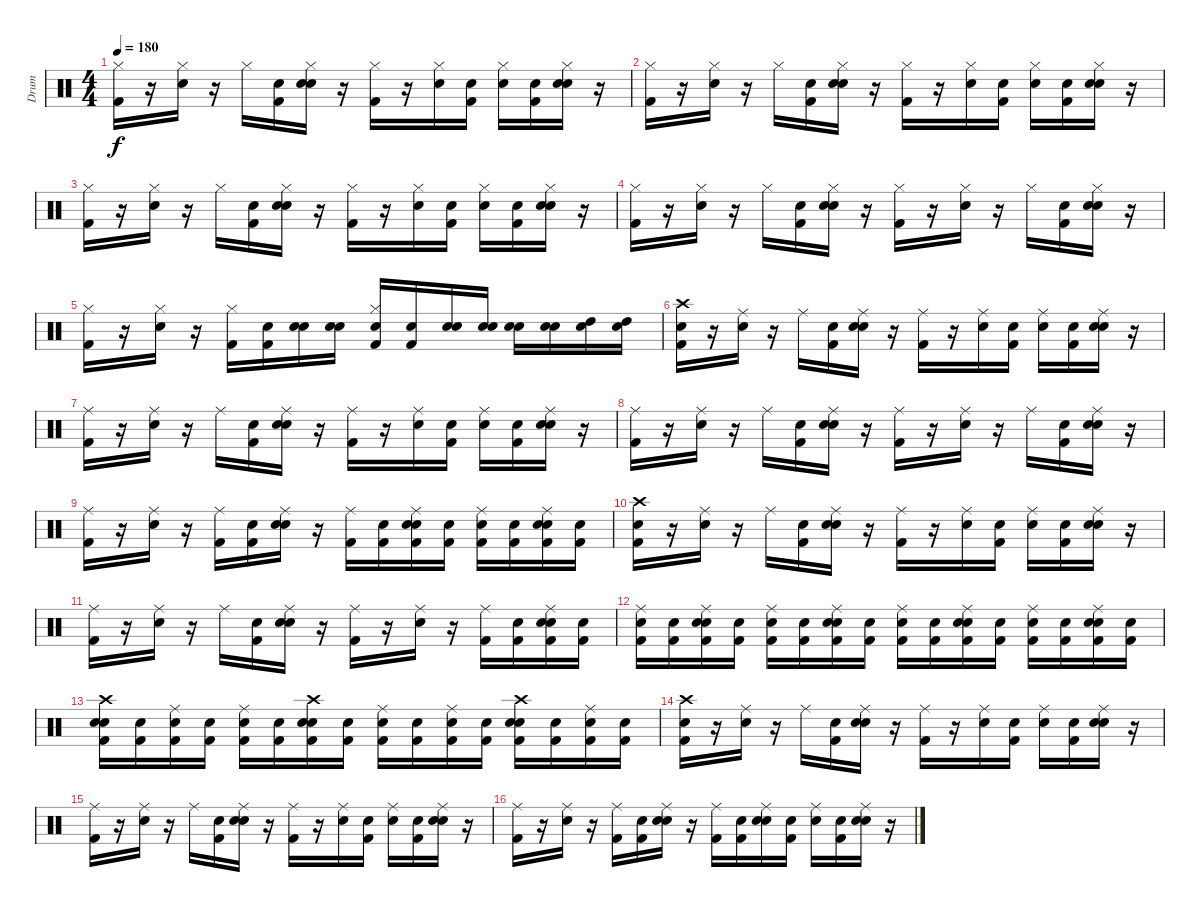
\track ("Drum" "Drum") {instrument percussion}
\staff {score}
\articulation defaults
\ts (4 4)
\tempo 180
\clef neutral
\ks c
("Kick (hit) 2" "Hi-Hat (closed)").16{dy f} r.16 ("Snare (hit) 2" "Hi-Hat (closed)").16 r.16 "Hi-Hat (closed)".16 ("Snare (hit)" "Kick (hit) 2").16 ("Snare (hit)" "Snare (hit) 2" "Hi-Hat (closed)").16 r.16 ("Kick (hit) 2" "Hi-Hat (closed)").16 r.16 ("Snare (hit) 2" "Hi-Hat (closed)").16 ("Snare (hit)" "Kick (hit) 2").16 ("Snare (hit)" "Hi-Hat (closed)").16 ("Snare (hit)" "Kick (hit) 2").16 ("Snare (hit)" "Snare (hit) 2" "Hi-Hat (closed)").16 r.16 |
("Kick (hit) 2" "Hi-Hat (closed)").16 r.16 ("Snare (hit) 2" "Hi-Hat (closed)").16 r.16 "Hi-Hat (closed)".16 ("Snare (hit)" "Kick (hit) 2").16 ("Snare (hit)" "Snare (hit) 2" "Hi-Hat (closed)").16 r.16 ("Kick (hit) 2" "Hi-Hat (closed)").16 r.16 ("Snare (hit) 2" "Hi-Hat (closed)").16 ("Snare (hit)" "Kick (hit) 2").16 ("Snare (hit)" "Hi-Hat (closed)").16 ("Snare (hit)" "Kick (hit) 2").16 ("Snare (hit)" "Snare (hit) 2" "Hi-Hat (closed)").16 r.16 |
("Kick (hit) 2" "Hi-Hat (closed)").16 r.16 ("Snare (hit) 2" "Hi-Hat (closed)").16 r.16 "Hi-Hat (closed)".16 ("Snare (hit)" "Kick (hit) 2").16 ("Snare (hit)" "Snare (hit) 2" "Hi-Hat (closed)").16 r.16 ("Kick (hit) 2" "Hi-Hat (closed)").16 r.16 ("Snare (hit) 2" "Hi-Hat (closed)").16 ("Snare (hit)" "Kick (hit) 2").16 ("Snare (hit)" "Hi-Hat (closed)").16 ("Snare (hit)" "Kick (hit) 2").16 ("Snare (hit)" "Snare (hit) 2" "Hi-Hat (closed)").16 r.16 |
("Kick (hit) 2" "Hi-Hat (closed)").16 r.16 ("Snare (hit) 2" "Hi-Hat (closed)").16 r.16 "Hi-Hat (closed)".16 ("Snare (hit)" "Kick (hit) 2").16 ("Snare (hit)" "Snare (hit) 2" "Hi-Hat (closed)").16 r.16 ("Kick (hit) 2" "Hi-Hat (closed)").16 r.16 ("Snare (hit) 2" "Hi-Hat (closed)").16 r.16 "Hi-Hat (closed)".16 ("Snare (hit)" "Kick (hit) 2").16 ("Snare (hit)" "Snare (hit) 2" "Hi-Hat (closed)").16 r.16 |
("Kick (hit) 2" "Hi-Hat (closed)").16 r.16 ("Snare (hit) 2" "Hi-Hat (closed)").16 r.16 ("Kick (hit) 2" "Hi-Hat (closed)").16 ("Snare (hit)" "Kick (hit) 2").16 ("Snare (hit)" "Snare (hit) 2").16 ("Snare (hit)" "Snare (hit) 2").16 ("Snare (hit)" "Kick (hit) 2" "Hi-Hat (closed)").16 ("Snare (hit)" "Kick (hit) 2").16 ("Snare (hit)" "Snare (hit) 2").16 ("Snare (hit)" "Snare (hit) 2").16 ("Snare (hit)" "Snare (hit) 2").16 ("Snare (hit)" "Snare (hit) 2").16 ("Snare (hit)" "High Tom (hit)").16 ("Snare (hit)" "High Tom (hit)").16 |
("Snare (hit)" "Kick (hit) 2" "Crash high (hit)").16 r.16 ("Snare (hit) 2" "Ride (middle)").16 r.16 "Ride (middle)".16 ("Snare (hit)" "Kick (hit) 2").16 ("Snare (hit)" "Snare (hit) 2" "Ride (middle)").16 r.16 ("Kick (hit) 2" "Ride (middle)").16 r.16 ("Snare (hit) 2" "Ride (middle)").16 ("Snare (hit)" "Kick (hit) 2").16 ("Snare (hit)" "Ride (middle)").16 ("Snare (hit)" "Kick (hit) 2").16 ("Snare (hit)" "Snare (hit) 2" "Ride (middle)").16 r.16 |
("Kick (hit) 2" "Ride (middle)").16 r.16 ("Snare (hit) 2" "Ride (middle)").16 r.16 "Ride (middle)".16 ("Snare (hit)" "Kick (hit) 2").16 ("Snare (hit)" "Snare (hit) 2" "Ride (middle)").16 r.16 ("Kick (hit) 2" "Ride (middle)").16 r.16 ("Snare (hit) 2" "Ride (middle)").16 ("Snare (hit)" "Kick (hit) 2").16 ("Snare (hit)" "Ride (middle)").16 ("Snare (hit)" "Kick (hit) 2").16 ("Snare (hit)" "Snare (hit) 2" "Ride (middle)").16 r.16 |
("Kick (hit) 2" "Ride (middle)").16 r.16 ("Snare (hit) 2" "Ride (middle)").16 r.16 "Ride (middle)".16 ("Snare (hit)" "Kick (hit) 2").16 ("Snare (hit)" "Snare (hit) 2" "Ride (middle)").16 r.16 ("Kick (hit) 2" "Ride (middle)").16 r.16 ("Snare (hit) 2" "Ride (middle)").16 r.16 "Ride (middle)".16 ("Snare (hit)" "Kick (hit) 2").16 ("Snare (hit)" "Snare (hit) 2" "Ride (middle)").16 r.16 |
("Kick (hit) 2" "Ride (middle)").16 r.16 ("Snare (hit) 2" "Ride (middle)").16 r.16 ("Kick (hit) 2" "Ride (middle)").16 ("Snare (hit)" "Kick (hit) 2").16 ("Snare (hit)" "Snare (hit) 2" "Ride (middle)").16 r.16 ("Kick (hit) 2" "Ride (middle)").16 ("Snare (hit)" "Kick (hit) 2").16 ("Snare (hit)" "Kick (hit) 2" "Snare (hit) 2" "Ride (middle)").16 ("Snare (hit)" "Kick (hit) 2").16 ("Snare (hit)" "Kick (hit) 2" "Ride (middle)").16 ("Snare (hit)" "Kick (hit) 2").16 ("Snare (hit)" "Kick (hit) 2" "Snare (hit) 2" "Ride (middle)").16 ("Snare (hit)" "Kick (hit) 2").16 |
("Snare (hit)" "Kick (hit) 2" "Crash high (hit)").16 r.16 ("Snare (hit) 2" "Ride (middle)").16 r.16 "Ride (middle)".16 ("Snare (hit)" "Kick (hit) 2").16 ("Snare (hit)" "Snare (hit) 2" "Ride (middle)").16 r.16 ("Kick (hit) 2" "Ride (middle)").16 r.16 ("Snare (hit) 2" "Ride (middle)").16 ("Snare (hit)" "Kick (hit) 2").16 ("Snare (hit)" "Ride (middle)").16 ("Snare (hit)" "Kick (hit) 2").16 ("Snare (hit)" "Snare (hit) 2" "Ride (middle)").16 r.16 |
("Kick (hit) 2" "Ride (middle)").16 r.16 ("Snare (hit) 2" "Ride (middle)").16 r.16 "Ride (middle)".16 ("Snare (hit)" "Kick (hit) 2").16 ("Snare (hit)" "Snare (hit) 2" "Ride (middle)").16 r.16 ("Kick (hit) 2" "Ride (middle)").16 r.16 ("Snare (hit) 2" "Ride (middle)").16 r.16 ("Kick (hit) 2" "Ride (middle)").16 ("Snare (hit)" "Kick (hit) 2").16 ("Snare (hit)" "Kick (hit) 2" "Snare (hit) 2" "Ride (middle)").16 ("Snare (hit)" "Kick (hit) 2").16 |
("Snare (hit)" "Kick (hit) 2" "Ride (middle)").16 ("Snare (hit)" "Kick (hit) 2").16 ("Snare (hit)" "Snare (hit) 2" "Kick (hit) 2" "Ride (middle)").16 ("Snare (hit)" "Kick (hit) 2").16 ("Snare (hit)" "Kick (hit) 2" "Ride (middle)").16 ("Snare (hit)" "Kick (hit) 2").16 ("Snare (hit)" "Snare (hit) 2" "Kick (hit) 2" "Ride (middle)").16 ("Snare (hit)" "Kick (hit) 2").16 ("Snare (hit)" "Kick (hit) 2" "Ride (middle)").16 ("Snare (hit)" "Kick (hit) 2").16 ("Snare (hit)" "Snare (hit) 2" "Kick (hit) 2" "Ride (middle)").16 ("Snare (hit)" "Kick (hit) 2").16 ("Snare (hit)" "Kick (hit) 2" "Ride (middle)").16 ("Snare (hit)" "Kick (hit) 2").16 ("Snare (hit)" "Snare (hit) 2" "Ride (middle)" "Kick (hit) 2").16 ("Snare (hit)" "Kick (hit) 2").16 |
("Snare (hit)" "Snare (hit) 2" "Crash high (hit)" "Kick (hit) 2").16 ("Snare (hit)" "Kick (hit) 2").16 ("Snare (hit)" "Ride (middle)" "Kick (hit) 2").16 ("Snare (hit)" "Kick (hit) 2").16 ("Snare (hit)" "Ride (middle)" "Kick (hit) 2").16 ("Snare (hit)" "Kick (hit) 2").16 ("Snare (hit)" "Snare (hit) 2" "Crash high (hit)" "Kick (hit) 2").16 ("Snare (hit)" "Kick (hit) 2").16 ("Snare (hit)" "Ride (middle)" "Kick (hit) 2").16 ("Snare (hit)" "Kick (hit) 2").16 ("Snare (hit)" "Ride (middle)" "Kick (hit) 2").16 ("Snare (hit)" "Kick (hit) 2").16 ("Snare (hit)" "Snare (hit) 2" "Crash high (hit)" "Kick (hit) 2").16 ("Snare (hit)" "Kick (hit) 2").16 ("Snare (hit)" "Ride (middle)" "Kick (hit) 2").16 ("Snare (hit)" "Kick (hit) 2").16 |
("Snare (hit)" "Kick (hit) 2" "Crash high (hit)").16 r.16 ("Snare (hit) 2" "Ride (middle)").16 r.16 "Ride (middle)".16 ("Snare (hit)" "Kick (hit) 2").16 ("Snare (hit)" "Snare (hit) 2" "Ride (middle)").16 r.16 ("Kick (hit) 2" "Ride (middle)").16 r.16 ("Snare (hit) 2" "Ride (middle)").16 ("Snare (hit)" "Kick (hit) 2").16 ("Snare (hit)" "Ride (middle)").16 ("Snare (hit)" "Kick (hit) 2").16 ("Snare (hit)" "Snare (hit) 2" "Ride (middle)").16 r.16 |
("Kick (hit) 2" "Ride (middle)").16 r.16 ("Snare (hit) 2" "Ride (middle)").16 r.16 "Ride (middle)".16 ("Snare (hit)" "Kick (hit) 2").16 ("Snare (hit)" "Snare (hit) 2" "Ride (middle)").16 r.16 ("Kick (hit) 2" "Ride (middle)").16 r.16 ("Ride (middle)" "Snare (hit) 2").16 ("Snare (hit)" "Kick (hit) 2").16 ("Snare (hit)" "Ride (middle)").16 ("Snare (hit)" "Kick (hit) 2").16 ("Snare (hit)" "Snare (hit) 2" "Ride (middle)").16 r.16 |
("Kick (hit) 2" "Ride (middle)").16 r.16 ("Snare (hit) 2" "Ride (middle)").16 r.16 ("Kick (hit) 2" "Ride (middle)").16 ("Snare (hit)" "Kick (hit) 2").16 ("Snare (hit)" "Snare (hit) 2" "Ride (middle)").16 r.16 ("Kick (hit) 2" "Ride (middle)").16 ("Snare (hit)" "Kick (hit) 2").16 ("Snare (hit)" "Snare (hit) 2" "Ride (middle)").16 ("Snare (hit)" "Kick (hit) 2").16 ("Snare (hit)" "Ride (middle)").16 ("Snare (hit)" "Kick (hit) 2").16 ("Snare (hit)" "Snare (hit) 2" "Ride (middle)").16 r.16
